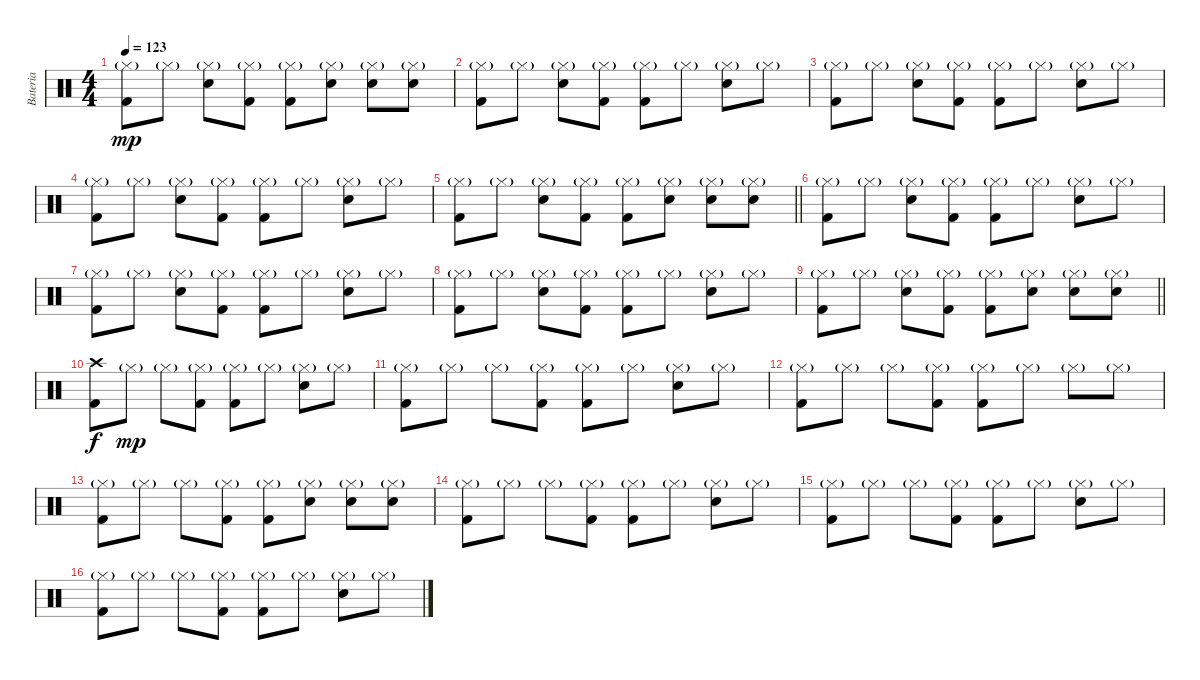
\track ("Bateria" "Bateria") {instrument percussion}
\staff {score}
\articulation defaults
\ts (4 4)
\tempo 123
\clef neutral
\ks c
("Hi-Hat (closed)"{g} "Kick (hit) 2").8{dy mp} "Hi-Hat (closed)"{g}.8 ("Hi-Hat (closed)"{g} "Snare (hit) 2").8 ("Hi-Hat (closed)"{g} "Kick (hit) 2").8 ("Hi-Hat (closed)"{g} "Kick (hit) 2").8 ("Hi-Hat (closed)"{g} "Snare (hit) 2").8 ("Hi-Hat (closed)"{g} "Snare (hit) 2").8 ("Hi-Hat (closed)"{g} "Snare (hit) 2").8 |
("Hi-Hat (closed)"{g} "Kick (hit) 2").8 "Hi-Hat (closed)"{g}.8 ("Hi-Hat (closed)"{g} "Snare (hit) 2").8 ("Hi-Hat (closed)"{g} "Kick (hit) 2").8 ("Hi-Hat (closed)"{g} "Kick (hit) 2").8 "Hi-Hat (closed)"{g}.8 ("Hi-Hat (closed)"{g} "Snare (hit) 2").8 "Hi-Hat (closed)"{g}.8 |
("Hi-Hat (closed)"{g} "Kick (hit) 2").8 "Hi-Hat (closed)"{g}.8 ("Hi-Hat (closed)"{g} "Snare (hit) 2").8 ("Hi-Hat (closed)"{g} "Kick (hit) 2").8 ("Hi-Hat (closed)"{g} "Kick (hit) 2").8 "Hi-Hat (closed)"{g}.8 ("Hi-Hat (closed)"{g} "Snare (hit) 2").8 "Hi-Hat (closed)"{g}.8 |
("Hi-Hat (closed)"{g} "Kick (hit) 2").8 "Hi-Hat (closed)"{g}.8 ("Hi-Hat (closed)"{g} "Snare (hit) 2").8 ("Hi-Hat (closed)"{g} "Kick (hit) 2").8 ("Hi-Hat (closed)"{g} "Kick (hit) 2").8 "Hi-Hat (closed)"{g}.8 ("Hi-Hat (closed)"{g} "Snare (hit) 2").8 "Hi-Hat (closed)"{g}.8 |
\barLineRight lightlight
("Hi-Hat (closed)"{g} "Kick (hit) 2").8 "Hi-Hat (closed)"{g}.8 ("Hi-Hat (closed)"{g} "Snare (hit) 2").8 ("Hi-Hat (closed)"{g} "Kick (hit) 2").8 ("Hi-Hat (closed)"{g} "Kick (hit) 2").8 ("Hi-Hat (closed)"{g} "Snare (hit) 2").8 ("Hi-Hat (closed)"{g} "Snare (hit) 2").8 ("Hi-Hat (closed)"{g} "Snare (hit) 2").8 |
("Hi-Hat (closed)"{g} "Kick (hit) 2").8 "Hi-Hat (closed)"{g}.8 ("Hi-Hat (closed)"{g} "Snare (hit) 2").8 ("Hi-Hat (closed)"{g} "Kick (hit) 2").8 ("Hi-Hat (closed)"{g} "Kick (hit) 2").8 "Hi-Hat (closed)"{g}.8 ("Hi-Hat (closed)"{g} "Snare (hit) 2").8 "Hi-Hat (closed)"{g}.8 |
("Hi-Hat (closed)"{g} "Kick (hit) 2").8 "Hi-Hat (closed)"{g}.8 ("Hi-Hat (closed)"{g} "Snare (hit) 2").8 ("Hi-Hat (closed)"{g} "Kick (hit) 2").8 ("Hi-Hat (closed)"{g} "Kick (hit) 2").8 "Hi-Hat (closed)"{g}.8 ("Hi-Hat (closed)"{g} "Snare (hit) 2").8 "Hi-Hat (closed)"{g}.8 |
("Hi-Hat (closed)"{g} "Kick (hit) 2").8 "Hi-Hat (closed)"{g}.8 ("Hi-Hat (closed)"{g} "Snare (hit) 2").8 ("Hi-Hat (closed)"{g} "Kick (hit) 2").8 ("Hi-Hat (closed)"{g} "Kick (hit) 2").8 "Hi-Hat (closed)"{g}.8 ("Hi-Hat (closed)"{g} "Snare (hit) 2").8 "Hi-Hat (closed)"{g}.8 |
\barLineRight lightlight
("Hi-Hat (closed)"{g} "Kick (hit) 2").8 "Hi-Hat (closed)"{g}.8 ("Hi-Hat (closed)"{g} "Snare (hit) 2").8 ("Hi-Hat (closed)"{g} "Kick (hit) 2").8 ("Hi-Hat (closed)"{g} "Kick (hit) 2").8 ("Hi-Hat (closed)"{g} "Snare (hit) 2").8 ("Hi-Hat (closed)"{g} "Snare (hit) 2").8 ("Hi-Hat (closed)"{g} "Snare (hit) 2").8 |
("Crash high (hit)" "Kick (hit) 2").8{dy f} "Hi-Hat (closed)"{g}.8{dy mp} "Hi-Hat (closed)"{g}.8 ("Hi-Hat (closed)"{g} "Kick (hit) 2").8 ("Hi-Hat (closed)"{g} "Kick (hit) 2").8 "Hi-Hat (closed)"{g}.8 ("Hi-Hat (closed)"{g} "Snare (hit) 2").8 "Hi-Hat (closed)"{g}.8 |
("Hi-Hat (closed)"{g} "Kick (hit) 2").8 "Hi-Hat (closed)"{g}.8 "Hi-Hat (closed)"{g}.8 ("Hi-Hat (closed)"{g} "Kick (hit) 2").8 ("Hi-Hat (closed)"{g} "Kick (hit) 2").8 "Hi-Hat (closed)"{g}.8 ("Hi-Hat (closed)"{g} "Snare (hit) 2").8 "Hi-Hat (closed)"{g}.8 |
("Hi-Hat (closed)"{g} "Kick (hit) 2").8 "Hi-Hat (closed)"{g}.8 "Hi-Hat (closed)"{g}.8 ("Hi-Hat (closed)"{g} "Kick (hit) 2").8 ("Hi-Hat (closed)"{g} "Kick (hit) 2").8 "Hi-Hat (closed)"{g}.8 "Hi-Hat (closed)"{g}.8 "Hi-Hat (closed)"{g}.8 |
("Hi-Hat (closed)"{g} "Kick (hit) 2").8 "Hi-Hat (closed)"{g}.8 "Hi-Hat (closed)"{g}.8 ("Hi-Hat (closed)"{g} "Kick (hit) 2").8 ("Hi-Hat (closed)"{g} "Kick (hit) 2").8 ("Hi-Hat (closed)"{g} "Snare (hit) 2").8 ("Hi-Hat (closed)"{g} "Snare (hit) 2").8 ("Hi-Hat (closed)"{g} "Snare (hit) 2").8 |
("Hi-Hat (closed)"{g} "Kick (hit) 2").8 "Hi-Hat (closed)"{g}.8 "Hi-Hat (closed)"{g}.8 ("Hi-Hat (closed)"{g} "Kick (hit) 2").8 ("Hi-Hat (closed)"{g} "Kick (hit) 2").8 "Hi-Hat (closed)"{g}.8 ("Hi-Hat (closed)"{g} "Snare (hit) 2").8 "Hi-Hat (closed)"{g}.8 |
("Hi-Hat (closed)"{g} "Kick (hit) 2").8 "Hi-Hat (closed)"{g}.8 "Hi-Hat (closed)"{g}.8 ("Hi-Hat (closed)"{g} "Kick (hit) 2").8 ("Hi-Hat (closed)"{g} "Kick (hit) 2").8 "Hi-Hat (closed)"{g}.8 ("Hi-Hat (closed)"{g} "Snare (hit) 2").8 "Hi-Hat (closed)"{g}.8 |
("Hi-Hat (closed)"{g} "Kick (hit) 2").8 "Hi-Hat (closed)"{g}.8 "Hi-Hat (closed)"{g}.8 ("Hi-Hat (closed)"{g} "Kick (hit) 2").8 ("Hi-Hat (closed)"{g} "Kick (hit) 2").8 "Hi-Hat (closed)"{g}.8 ("Hi-Hat (closed)"{g} "Snare (hit) 2").8 "Hi-Hat (closed)"{g}.8
